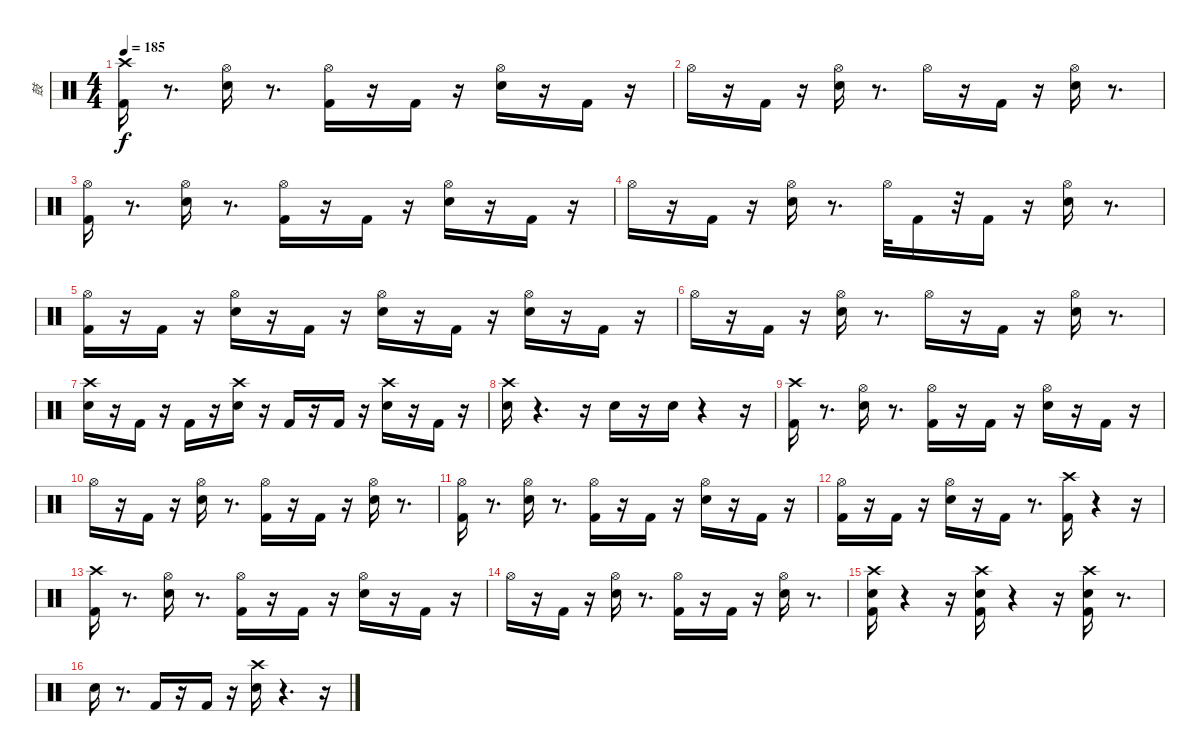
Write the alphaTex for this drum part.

\track ("鼓" "鼓") {instrument percussion}
\staff {score}
\articulation defaults
\ts (4 4)
\tempo 185
\clef neutral
\ks c
("Crash high (hit)" "Kick (hit) 2").16{dy f} r.8{d} ("Hi-Hat (open)" "Snare (hit) 2").16 r.8{d} ("Hi-Hat (open)" "Kick (hit) 2").16 r.16 "Kick (hit) 2".16 r.16 ("Hi-Hat (open)" "Snare (hit) 2").16 r.16 "Kick (hit) 2".16 r.16 |
"Hi-Hat (open)".16 r.16 "Kick (hit) 2".16 r.16 ("Hi-Hat (open)" "Snare (hit) 2").16 r.8{d} "Hi-Hat (open)".16 r.16 "Kick (hit) 2".16 r.16 ("Hi-Hat (open)" "Snare (hit) 2").16 r.8{d} |
("Hi-Hat (open)" "Kick (hit) 2").16 r.8{d} ("Hi-Hat (open)" "Snare (hit) 2").16 r.8{d} ("Hi-Hat (open)" "Kick (hit) 2").16 r.16 "Kick (hit) 2".16 r.16 ("Hi-Hat (open)" "Snare (hit) 2").16 r.16 "Kick (hit) 2".16 r.16 |
"Hi-Hat (open)".16 r.16 "Kick (hit) 2".16 r.16 ("Hi-Hat (open)" "Snare (hit) 2").16 r.8{d} "Hi-Hat (open)".32 "Kick (hit) 2".16 r.32 "Kick (hit) 2".16 r.16 ("Hi-Hat (open)" "Snare (hit) 2").16 r.8{d} |
("Hi-Hat (open)" "Kick (hit) 2").16 r.16 "Kick (hit) 2".16 r.16 ("Hi-Hat (open)" "Snare (hit) 2").16 r.16 "Kick (hit) 2".16 r.16 ("Hi-Hat (open)" "Snare (hit) 2").16 r.16 "Kick (hit) 2".16 r.16 ("Hi-Hat (open)" "Snare (hit) 2").16 r.16 "Kick (hit) 2".16 r.16 |
"Hi-Hat (open)".16 r.16 "Kick (hit) 2".16 r.16 ("Hi-Hat (open)" "Snare (hit) 2").16 r.8{d} "Hi-Hat (open)".16 r.16 "Kick (hit) 2".16 r.16 ("Hi-Hat (open)" "Snare (hit) 2").16 r.8{d} |
("Crash high (hit)" "Snare (hit) 2").16 r.16 "Kick (hit) 2".16 r.16 "Kick (hit) 2".16 r.16 ("Crash high (hit)" "Snare (hit) 2").16 r.16 "Kick (hit) 2".16 r.16 "Kick (hit) 2".16 r.16 ("Crash high (hit)" "Snare (hit) 2").16 r.16 "Kick (hit) 2".16 r.16 |
("Crash high (hit)" "Snare (hit) 2").16 r.4{d} r.16 "Snare (hit) 2".16 r.16 "Snare (hit) 2".16 r.4 r.16 |
("Crash high (hit)" "Kick (hit) 2").16 r.8{d} ("Hi-Hat (open)" "Snare (hit) 2").16 r.8{d} ("Hi-Hat (open)" "Kick (hit) 2").16 r.16 "Kick (hit) 2".16 r.16 ("Hi-Hat (open)" "Snare (hit) 2").16 r.16 "Kick (hit) 2".16 r.16 |
"Hi-Hat (open)".16 r.16 "Kick (hit) 2".16 r.16 ("Hi-Hat (open)" "Snare (hit) 2").16 r.8{d} ("Kick (hit) 2" "Hi-Hat (open)").16 r.16 "Kick (hit) 2".16 r.16 ("Hi-Hat (open)" "Snare (hit) 2").16 r.8{d} |
("Hi-Hat (open)" "Kick (hit) 2").16 r.8{d} ("Hi-Hat (open)" "Snare (hit) 2").16 r.8{d} ("Hi-Hat (open)" "Kick (hit) 2").16 r.16 "Kick (hit) 2".16 r.16 ("Hi-Hat (open)" "Snare (hit) 2").16 r.16 "Kick (hit) 2".16 r.16 |
("Kick (hit) 2" "Hi-Hat (open)").16 r.16 "Kick (hit) 2".16 r.16 ("Hi-Hat (open)" "Snare (hit) 2").16 r.16 "Kick (hit) 2".16 r.8{d} ("Crash high (hit)" "Kick (hit) 2").16 r.4 r.16 |
("Crash high (hit)" "Kick (hit) 2").16 r.8{d} ("Hi-Hat (open)" "Snare (hit) 2").16 r.8{d} ("Hi-Hat (open)" "Kick (hit) 2").16 r.16 "Kick (hit) 2".16 r.16 ("Hi-Hat (open)" "Snare (hit) 2").16 r.16 "Kick (hit) 2".16 r.16 |
"Hi-Hat (open)".16 r.16 "Kick (hit) 2".16 r.16 ("Hi-Hat (open)" "Snare (hit) 2").16 r.8{d} ("Kick (hit) 2" "Hi-Hat (open)").16 r.16 "Kick (hit) 2".16 r.16 ("Hi-Hat (open)" "Snare (hit) 2").16 r.8{d} |
("Snare (hit) 2" "Kick (hit) 2" "Crash high (hit)").16 r.4 r.16 ("Snare (hit) 2" "Kick (hit) 2" "Crash high (hit)").16 r.4 r.16 ("Crash high (hit)" "Snare (hit) 2" "Kick (hit) 2").16 r.8{d} |
"Snare (hit) 2".16 r.8{d} "Kick (hit) 2".16 r.16 "Kick (hit) 2".16 r.16 ("Snare (hit) 2" "Crash high (hit)").16 r.4{d} r.16
